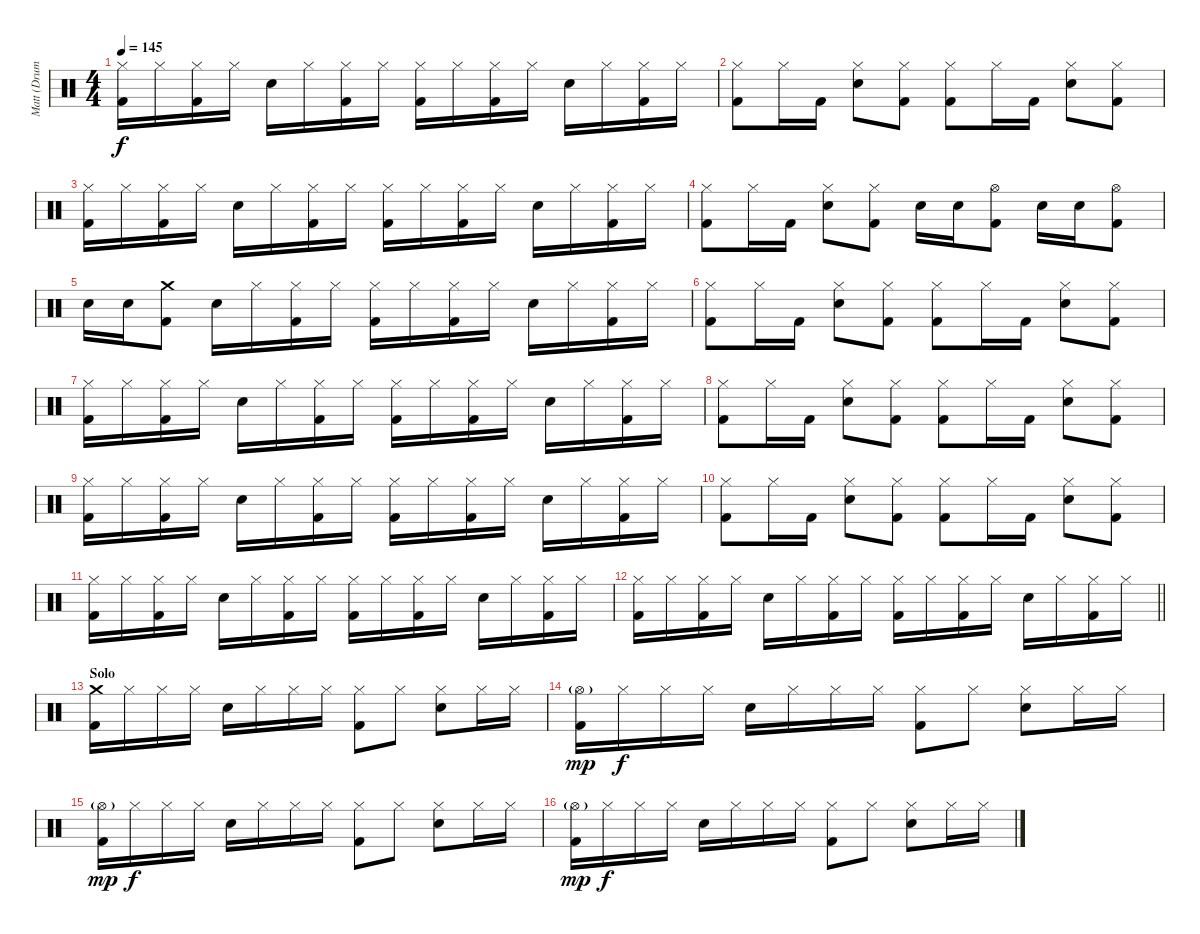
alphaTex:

\track ("Matt (Drums)" "Matt (Drum") {instrument percussion}
\staff {score}
\articulation defaults
\ts (4 4)
\tempo 145
\clef neutral
\ks c
("Hi-Hat (closed)" "Kick (hit) 2").16{dy f} "Hi-Hat (closed)".16 ("Hi-Hat (closed)" "Kick (hit) 2").16 "Hi-Hat (closed)".16 "Electric Snare (hit)".16 "Hi-Hat (closed)".16 ("Hi-Hat (closed)" "Kick (hit) 2").16 "Hi-Hat (closed)".16 ("Hi-Hat (closed)" "Kick (hit) 2").16 "Hi-Hat (closed)".16 ("Hi-Hat (closed)" "Kick (hit) 2").16 "Hi-Hat (closed)".16 "Electric Snare (hit)".16 "Hi-Hat (closed)".16 ("Hi-Hat (closed)" "Kick (hit) 2").16 "Hi-Hat (closed)".16 |
("Hi-Hat (closed)" "Kick (hit) 2").8 "Hi-Hat (closed)".16 "Kick (hit) 2".16 ("Hi-Hat (closed)" "Electric Snare (hit)").8 ("Hi-Hat (closed)" "Kick (hit) 2").8 ("Hi-Hat (closed)" "Kick (hit) 2").8 "Hi-Hat (closed)".16 "Kick (hit) 2".16 ("Hi-Hat (closed)" "Electric Snare (hit)").8 ("Hi-Hat (closed)" "Kick (hit) 2").8 |
("Hi-Hat (closed)" "Kick (hit) 2").16 "Hi-Hat (closed)".16 ("Hi-Hat (closed)" "Kick (hit) 2").16 "Hi-Hat (closed)".16 "Electric Snare (hit)".16 "Hi-Hat (closed)".16 ("Hi-Hat (closed)" "Kick (hit) 2").16 "Hi-Hat (closed)".16 ("Hi-Hat (closed)" "Kick (hit) 2").16 "Hi-Hat (closed)".16 ("Hi-Hat (closed)" "Kick (hit) 2").16 "Hi-Hat (closed)".16 "Electric Snare (hit)".16 "Hi-Hat (closed)".16 ("Hi-Hat (closed)" "Kick (hit) 2").16 "Hi-Hat (closed)".16 |
("Hi-Hat (closed)" "Kick (hit) 2").8 "Hi-Hat (closed)".16 "Kick (hit) 2".16 ("Hi-Hat (closed)" "Electric Snare (hit)").8 ("Hi-Hat (closed)" "Kick (hit) 2").8 "Electric Snare (hit)".16 "Electric Snare (hit)".16 ("Hi-Hat (open)" "Kick (hit) 2").8 "Electric Snare (hit)".16 "Electric Snare (hit)".16 ("Hi-Hat (open)" "Kick (hit) 2").8 |
"Electric Snare (hit)".16 "Electric Snare (hit)".16 ("Crash medium (hit)" "Kick (hit) 2").8 "Electric Snare (hit)".16 "Hi-Hat (closed)".16 ("Hi-Hat (closed)" "Kick (hit) 2").16 "Hi-Hat (closed)".16 ("Hi-Hat (closed)" "Kick (hit) 2").16 "Hi-Hat (closed)".16 ("Hi-Hat (closed)" "Kick (hit) 2").16 "Hi-Hat (closed)".16 "Electric Snare (hit)".16 "Hi-Hat (closed)".16 ("Hi-Hat (closed)" "Kick (hit) 2").16 "Hi-Hat (closed)".16 |
("Hi-Hat (closed)" "Kick (hit) 2").8 "Hi-Hat (closed)".16 "Kick (hit) 2".16 ("Hi-Hat (closed)" "Electric Snare (hit)").8 ("Hi-Hat (closed)" "Kick (hit) 2").8 ("Hi-Hat (closed)" "Kick (hit) 2").8 "Hi-Hat (closed)".16 "Kick (hit) 2".16 ("Hi-Hat (closed)" "Electric Snare (hit)").8 ("Hi-Hat (closed)" "Kick (hit) 2").8 |
("Hi-Hat (closed)" "Kick (hit) 2").16 "Hi-Hat (closed)".16 ("Hi-Hat (closed)" "Kick (hit) 2").16 "Hi-Hat (closed)".16 "Electric Snare (hit)".16 "Hi-Hat (closed)".16 ("Hi-Hat (closed)" "Kick (hit) 2").16 "Hi-Hat (closed)".16 ("Hi-Hat (closed)" "Kick (hit) 2").16 "Hi-Hat (closed)".16 ("Hi-Hat (closed)" "Kick (hit) 2").16 "Hi-Hat (closed)".16 "Electric Snare (hit)".16 "Hi-Hat (closed)".16 ("Hi-Hat (closed)" "Kick (hit) 2").16 "Hi-Hat (closed)".16 |
("Hi-Hat (closed)" "Kick (hit) 2").8 "Hi-Hat (closed)".16 "Kick (hit) 2".16 ("Hi-Hat (closed)" "Electric Snare (hit)").8 ("Hi-Hat (closed)" "Kick (hit) 2").8 ("Hi-Hat (closed)" "Kick (hit) 2").8 "Hi-Hat (closed)".16 "Kick (hit) 2".16 ("Hi-Hat (closed)" "Electric Snare (hit)").8 ("Hi-Hat (closed)" "Kick (hit) 2").8 |
("Hi-Hat (closed)" "Kick (hit) 2").16 "Hi-Hat (closed)".16 ("Hi-Hat (closed)" "Kick (hit) 2").16 "Hi-Hat (closed)".16 "Electric Snare (hit)".16 "Hi-Hat (closed)".16 ("Hi-Hat (closed)" "Kick (hit) 2").16 "Hi-Hat (closed)".16 ("Hi-Hat (closed)" "Kick (hit) 2").16 "Hi-Hat (closed)".16 ("Hi-Hat (closed)" "Kick (hit) 2").16 "Hi-Hat (closed)".16 "Electric Snare (hit)".16 "Hi-Hat (closed)".16 ("Hi-Hat (closed)" "Kick (hit) 2").16 "Hi-Hat (closed)".16 |
("Hi-Hat (closed)" "Kick (hit) 2").8 "Hi-Hat (closed)".16 "Kick (hit) 2".16 ("Hi-Hat (closed)" "Electric Snare (hit)").8 ("Hi-Hat (closed)" "Kick (hit) 2").8 ("Hi-Hat (closed)" "Kick (hit) 2").8 "Hi-Hat (closed)".16 "Kick (hit) 2".16 ("Hi-Hat (closed)" "Electric Snare (hit)").8 ("Hi-Hat (closed)" "Kick (hit) 2").8 |
("Hi-Hat (closed)" "Kick (hit) 2").16 "Hi-Hat (closed)".16 ("Hi-Hat (closed)" "Kick (hit) 2").16 "Hi-Hat (closed)".16 "Electric Snare (hit)".16 "Hi-Hat (closed)".16 ("Hi-Hat (closed)" "Kick (hit) 2").16 "Hi-Hat (closed)".16 ("Hi-Hat (closed)" "Kick (hit) 2").16 "Hi-Hat (closed)".16 ("Hi-Hat (closed)" "Kick (hit) 2").16 "Hi-Hat (closed)".16 "Electric Snare (hit)".16 "Hi-Hat (closed)".16 ("Hi-Hat (closed)" "Kick (hit) 2").16 "Hi-Hat (closed)".16 |
\barLineRight lightlight
("Hi-Hat (closed)" "Kick (hit) 2").16 "Hi-Hat (closed)".16 ("Hi-Hat (closed)" "Kick (hit) 2").16 "Hi-Hat (closed)".16 "Electric Snare (hit)".16 "Hi-Hat (closed)".16 ("Hi-Hat (closed)" "Kick (hit) 2").16 "Hi-Hat (closed)".16 ("Hi-Hat (closed)" "Kick (hit) 2").16 "Hi-Hat (closed)".16 ("Hi-Hat (closed)" "Kick (hit) 2").16 "Hi-Hat (closed)".16 "Electric Snare (hit)".16 "Hi-Hat (closed)".16 ("Hi-Hat (closed)" "Kick (hit) 2").16 "Hi-Hat (closed)".16 |
\section ("" "Solo")
("Crash medium (hit)" "Kick (hit) 2").16 "Hi-Hat (closed)".16 "Hi-Hat (closed)".16 "Hi-Hat (closed)".16 "Electric Snare (hit)".16 "Hi-Hat (closed)".16 "Hi-Hat (closed)".16 "Hi-Hat (closed)".16 ("Hi-Hat (closed)" "Kick (hit) 2").8 "Hi-Hat (closed)".8 ("Hi-Hat (closed)" "Electric Snare (hit)").8 "Hi-Hat (closed)".16 "Hi-Hat (closed)".16 |
("Hi-Hat (open)"{g} "Kick (hit) 2").16{dy mp} "Hi-Hat (closed)".16{dy f} "Hi-Hat (closed)".16 "Hi-Hat (closed)".16 "Electric Snare (hit)".16 "Hi-Hat (closed)".16 "Hi-Hat (closed)".16 "Hi-Hat (closed)".16 ("Hi-Hat (closed)" "Kick (hit) 2").8 "Hi-Hat (closed)".8 ("Hi-Hat (closed)" "Electric Snare (hit)").8 "Hi-Hat (closed)".16 "Hi-Hat (closed)".16 |
("Hi-Hat (open)"{g} "Kick (hit) 2").16{dy mp} "Hi-Hat (closed)".16{dy f} "Hi-Hat (closed)".16 "Hi-Hat (closed)".16 "Electric Snare (hit)".16 "Hi-Hat (closed)".16 "Hi-Hat (closed)".16 "Hi-Hat (closed)".16 ("Hi-Hat (closed)" "Kick (hit) 2").8 "Hi-Hat (closed)".8 ("Hi-Hat (closed)" "Electric Snare (hit)").8 "Hi-Hat (closed)".16 "Hi-Hat (closed)".16 |
("Hi-Hat (open)"{g} "Kick (hit) 2").16{dy mp} "Hi-Hat (closed)".16{dy f} "Hi-Hat (closed)".16 "Hi-Hat (closed)".16 "Electric Snare (hit)".16 "Hi-Hat (closed)".16 "Hi-Hat (closed)".16 "Hi-Hat (closed)".16 ("Hi-Hat (closed)" "Kick (hit) 2").8 "Hi-Hat (closed)".8 ("Hi-Hat (closed)" "Electric Snare (hit)").8 "Hi-Hat (closed)".16 "Hi-Hat (closed)".16
